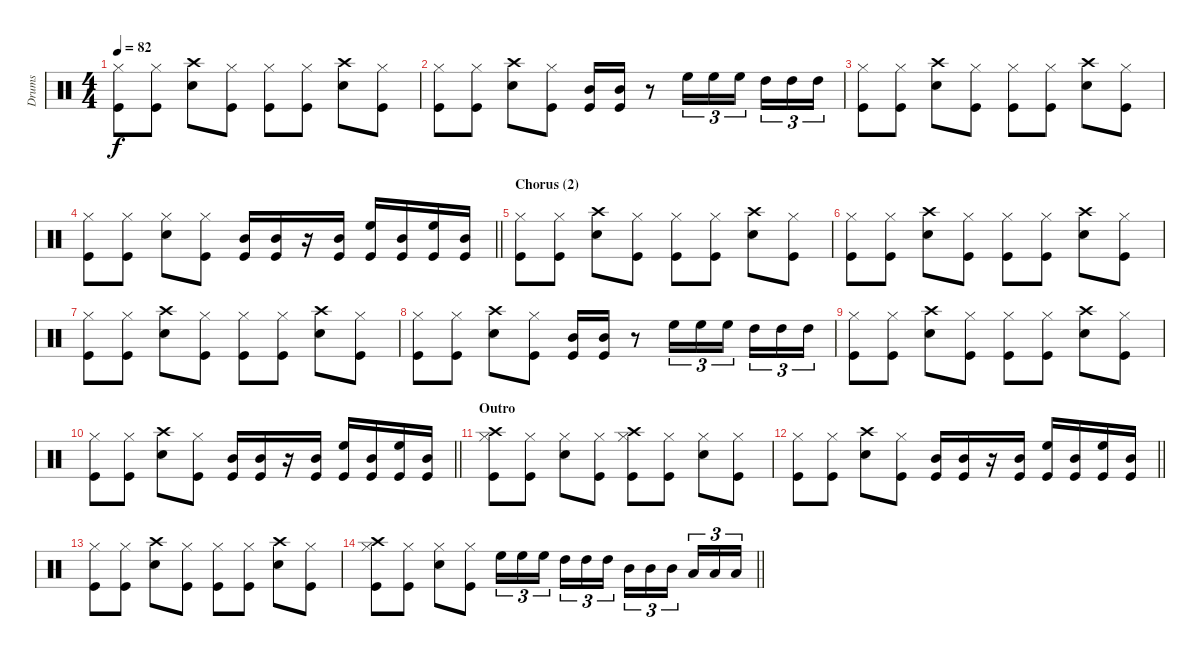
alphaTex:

\track ("Drums" "Drums") {instrument percussion}
\staff {score}
\articulation defaults
\ts (4 4)
\tempo 82
\clef neutral
\ks c
("Hi-Hat (closed)" "Kick (hit)").8{dy f} ("Hi-Hat (closed)" "Kick (hit)").8 ("Crash high (hit)" "Snare (hit) 2").8 ("Kick (hit)" "Hi-Hat (closed)").8 ("Kick (hit)" "Hi-Hat (closed)").8 ("Kick (hit)" "Hi-Hat (closed)").8 ("Snare (hit) 2" "Crash high (hit)").8 ("Kick (hit)" "Hi-Hat (closed)").8 |
("Hi-Hat (closed)" "Kick (hit)").8 ("Hi-Hat (closed)" "Kick (hit)").8 ("Crash high (hit)" "Snare (hit) 2").8 ("Kick (hit)" "Hi-Hat (closed)").8 ("Kick (hit)" "Mid Tom (hit)").16 ("Mid Tom (hit)" "Kick (hit)").16 r.8 "High Floor Tom (hit)".16{tu (3 2)} "High Floor Tom (hit)".16{tu (3 2)} "High Floor Tom (hit)".16{tu (3 2) beam splitsecondary} "High Tom (hit)".16{tu (3 2)} "High Tom (hit)".16{tu (3 2)} "High Tom (hit)".16{tu (3 2)} |
("Hi-Hat (closed)" "Kick (hit)").8 ("Hi-Hat (closed)" "Kick (hit)").8 ("Crash high (hit)" "Snare (hit) 2").8 ("Kick (hit)" "Hi-Hat (closed)").8 ("Kick (hit)" "Hi-Hat (closed)").8 ("Kick (hit)" "Hi-Hat (closed)").8 ("Snare (hit) 2" "Crash high (hit)").8 ("Kick (hit)" "Hi-Hat (closed)").8 |
\barLineRight lightlight
("Hi-Hat (closed)" "Kick (hit)").8 ("Hi-Hat (closed)" "Kick (hit)").8 ("Hi-Hat (closed)" "Snare (hit) 2").8 ("Kick (hit)" "Hi-Hat (closed)").8 ("Kick (hit)" "Mid Tom (hit)").16 ("Kick (hit)" "Mid Tom (hit)").16 r.16 ("Kick (hit)" "Mid Tom (hit)").16 ("High Floor Tom (hit)" "Kick (hit)").16 ("Kick (hit)" "Mid Tom (hit)").16 ("High Floor Tom (hit)" "Kick (hit)").16 ("Mid Tom (hit)" "Kick (hit)").16 |
\section ("" "Chorus (2)")
("Hi-Hat (closed)" "Kick (hit)").8 ("Hi-Hat (closed)" "Kick (hit)").8 ("Crash high (hit)" "Snare (hit) 2").8 ("Kick (hit)" "Hi-Hat (closed)").8 ("Kick (hit)" "Hi-Hat (closed)").8 ("Kick (hit)" "Hi-Hat (closed)").8 ("Snare (hit) 2" "Crash high (hit)").8 ("Kick (hit)" "Hi-Hat (closed)").8 |
("Hi-Hat (closed)" "Kick (hit)").8 ("Hi-Hat (closed)" "Kick (hit)").8 ("Crash high (hit)" "Snare (hit) 2").8 ("Kick (hit)" "Hi-Hat (closed)").8 ("Kick (hit)" "Hi-Hat (closed)").8 ("Kick (hit)" "Hi-Hat (closed)").8 ("Snare (hit) 2" "Crash high (hit)").8 ("Kick (hit)" "Hi-Hat (closed)").8 |
("Hi-Hat (closed)" "Kick (hit)").8 ("Hi-Hat (closed)" "Kick (hit)").8 ("Crash high (hit)" "Snare (hit) 2").8 ("Kick (hit)" "Hi-Hat (closed)").8 ("Kick (hit)" "Hi-Hat (closed)").8 ("Kick (hit)" "Hi-Hat (closed)").8 ("Snare (hit) 2" "Crash high (hit)").8 ("Kick (hit)" "Hi-Hat (closed)").8 |
("Hi-Hat (closed)" "Kick (hit)").8 ("Hi-Hat (closed)" "Kick (hit)").8 ("Crash high (hit)" "Snare (hit) 2").8 ("Kick (hit)" "Hi-Hat (closed)").8 ("Kick (hit)" "Mid Tom (hit)").16 ("Mid Tom (hit)" "Kick (hit)").16 r.8 "High Floor Tom (hit)".16{tu (3 2)} "High Floor Tom (hit)".16{tu (3 2)} "High Floor Tom (hit)".16{tu (3 2) beam splitsecondary} "High Tom (hit)".16{tu (3 2)} "High Tom (hit)".16{tu (3 2)} "High Tom (hit)".16{tu (3 2)} |
("Hi-Hat (closed)" "Kick (hit)").8 ("Hi-Hat (closed)" "Kick (hit)").8 ("Crash high (hit)" "Snare (hit) 2").8 ("Kick (hit)" "Hi-Hat (closed)").8 ("Kick (hit)" "Hi-Hat (closed)").8 ("Kick (hit)" "Hi-Hat (closed)").8 ("Snare (hit) 2" "Crash high (hit)").8 ("Kick (hit)" "Hi-Hat (closed)").8 |
\barLineRight lightlight
("Hi-Hat (closed)" "Kick (hit)").8 ("Hi-Hat (closed)" "Kick (hit)").8 ("Crash high (hit)" "Snare (hit) 2").8 ("Kick (hit)" "Hi-Hat (closed)").8 ("Kick (hit)" "Mid Tom (hit)").16 ("Kick (hit)" "Mid Tom (hit)").16 r.16 ("Kick (hit)" "Mid Tom (hit)").16 ("High Floor Tom (hit)" "Kick (hit)").16 ("Kick (hit)" "Mid Tom (hit)").16 ("High Floor Tom (hit)" "Kick (hit)").16 ("Mid Tom (hit)" "Kick (hit)").16 |
\section ("" "Outro")
("Crash high (hit)" "Hi-Hat (closed)" "Kick (hit)").8 ("Hi-Hat (closed)" "Kick (hit)").8 ("Hi-Hat (closed)" "Snare (hit) 2").8 ("Kick (hit)" "Hi-Hat (closed)").8 ("Kick (hit)" "Hi-Hat (closed)" "Crash high (hit)").8 ("Kick (hit)" "Hi-Hat (closed)").8 ("Snare (hit) 2" "Hi-Hat (closed)").8 ("Kick (hit)" "Hi-Hat (closed)").8 |
\barLineRight lightlight
("Hi-Hat (closed)" "Kick (hit)").8 ("Hi-Hat (closed)" "Kick (hit)").8 ("Crash high (hit)" "Snare (hit) 2").8 ("Kick (hit)" "Hi-Hat (closed)").8 ("Kick (hit)" "Mid Tom (hit)").16 ("Kick (hit)" "Mid Tom (hit)").16 r.16 ("Kick (hit)" "Mid Tom (hit)").16 ("High Floor Tom (hit)" "Kick (hit)").16 ("Kick (hit)" "Mid Tom (hit)").16 ("High Floor Tom (hit)" "Kick (hit)").16 ("Mid Tom (hit)" "Kick (hit)").16 |
("Hi-Hat (closed)" "Kick (hit)").8 ("Hi-Hat (closed)" "Kick (hit)").8 ("Crash high (hit)" "Snare (hit) 2").8 ("Kick (hit)" "Hi-Hat (closed)").8 ("Kick (hit)" "Hi-Hat (closed)").8 ("Kick (hit)" "Hi-Hat (closed)").8 ("Snare (hit) 2" "Crash high (hit)").8 ("Kick (hit)" "Hi-Hat (closed)").8 |
\barLineRight lightlight
("Crash high (hit)" "Hi-Hat (closed)" "Kick (hit)").8 ("Hi-Hat (closed)" "Kick (hit)").8 ("Hi-Hat (closed)" "Snare (hit) 2").8 ("Kick (hit)" "Hi-Hat (closed)").8 "High Floor Tom (hit)".16{tu (3 2)} "High Floor Tom (hit)".16{tu (3 2)} "High Floor Tom (hit)".16{tu (3 2) beam splitsecondary} "High Tom (hit)".16{tu (3 2)} "High Tom (hit)".16{tu (3 2)} "High Tom (hit)".16{tu (3 2)} "Mid Tom (hit)".16{tu (3 2)} "Mid Tom (hit)".16{tu (3 2)} "Mid Tom (hit)".16{tu (3 2) beam splitsecondary} "Low Tom (hit)".16{tu (3 2)} "Low Tom (hit)".16{tu (3 2)} "Low Tom (hit)".16{tu (3 2)}
